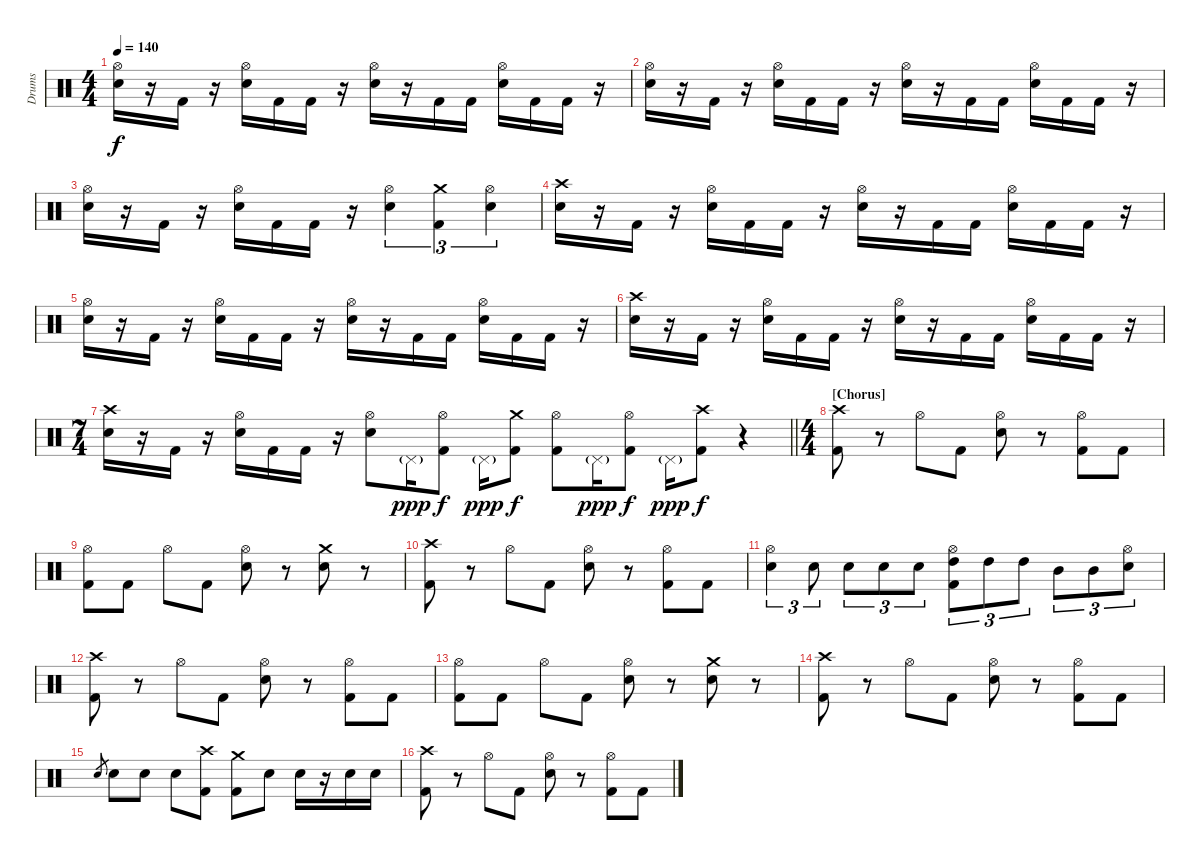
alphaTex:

\track ("Drums" "Drums") {instrument percussion}
\staff {score}
\articulation defaults
\ts (4 4)
\tempo 140
\clef neutral
\ks c
("Hi-Hat (open)" "Snare (hit) 2").16{dy f} r.16 "Kick (hit) 2".16 r.16 ("Hi-Hat (open)" "Snare (hit) 2").16 "Kick (hit) 2".16 "Kick (hit) 2".16 r.16 ("Hi-Hat (open)" "Snare (hit) 2").16 r.16 "Kick (hit) 2".16 "Kick (hit) 2".16 ("Hi-Hat (open)" "Snare (hit) 2").16 "Kick (hit) 2".16 "Kick (hit) 2".16 r.16 |
("Hi-Hat (open)" "Snare (hit) 2").16 r.16 "Kick (hit) 2".16 r.16 ("Hi-Hat (open)" "Snare (hit) 2").16 "Kick (hit) 2".16 "Kick (hit) 2".16 r.16 ("Hi-Hat (open)" "Snare (hit) 2").16 r.16 "Kick (hit) 2".16 "Kick (hit) 2".16 ("Hi-Hat (open)" "Snare (hit) 2").16 "Kick (hit) 2".16 "Kick (hit) 2".16 r.16 |
("Hi-Hat (open)" "Snare (hit) 2").16 r.16 "Kick (hit) 2".16 r.16 ("Hi-Hat (open)" "Snare (hit) 2").16 "Kick (hit) 2".16 "Kick (hit) 2".16 r.16 ("Hi-Hat (open)" "Snare (hit) 2").4{tu (3 2)} ("Crash medium (hit)" "Kick (hit) 2").4{tu (3 2)} ("Hi-Hat (open)" "Snare (hit) 2").4{tu (3 2)} |
("Crash high (hit)" "Snare (hit) 2").16 r.16 "Kick (hit) 2".16 r.16 ("Hi-Hat (open)" "Snare (hit) 2").16 "Kick (hit) 2".16 "Kick (hit) 2".16 r.16 ("Hi-Hat (open)" "Snare (hit) 2").16 r.16 "Kick (hit) 2".16 "Kick (hit) 2".16 ("Hi-Hat (open)" "Snare (hit) 2").16 "Kick (hit) 2".16 "Kick (hit) 2".16 r.16 |
("Hi-Hat (open)" "Snare (hit) 2").16 r.16 "Kick (hit) 2".16 r.16 ("Hi-Hat (open)" "Snare (hit) 2").16 "Kick (hit) 2".16 "Kick (hit) 2".16 r.16 ("Hi-Hat (open)" "Snare (hit) 2").16 r.16 "Kick (hit) 2".16 "Kick (hit) 2".16 ("Hi-Hat (open)" "Snare (hit) 2").16 "Kick (hit) 2".16 "Kick (hit) 2".16 r.16 |
("Crash high (hit)" "Snare (hit) 2").16 r.16 "Kick (hit) 2".16 r.16 ("Hi-Hat (open)" "Snare (hit) 2").16 "Kick (hit) 2".16 "Kick (hit) 2".16 r.16 ("Hi-Hat (open)" "Snare (hit) 2").16 r.16 "Kick (hit) 2".16 "Kick (hit) 2".16 ("Hi-Hat (open)" "Snare (hit) 2").16 "Kick (hit) 2".16 "Kick (hit) 2".16 r.16 |
\ts (7 4)
\barLineRight lightlight
("Crash high (hit)" "Snare (hit) 2").16 r.16 "Kick (hit) 2".16 r.16 ("Hi-Hat (open)" "Snare (hit) 2").16 "Kick (hit) 2".16 "Kick (hit) 2".16 r.16 ("Hi-Hat (open)" "Snare (hit) 2").8 "Pedal Hi-Hat (hit)"{g}.16{dy ppp} ("Hi-Hat (open)" "Kick (hit) 2").8{dy f} "Pedal Hi-Hat (hit)"{g}.16{dy ppp} ("Crash medium (hit)" "Kick (hit) 2").8{dy f} ("Hi-Hat (open)" "Kick (hit) 2").8 "Pedal Hi-Hat (hit)"{g}.16{dy ppp} ("Hi-Hat (open)" "Kick (hit) 2").8{dy f} "Pedal Hi-Hat (hit)"{g}.16{dy ppp} ("Crash high (hit)" "Kick (hit) 2").8{dy f} r.4 |
\ts (4 4)
\section ("" "[Chorus]")
("Crash high (hit)" "Kick (hit) 2").8 r.8 "Hi-Hat (open)".8 "Kick (hit) 2".8 ("Hi-Hat (open)" "Snare (hit) 2").8 r.8 ("Hi-Hat (open)" "Kick (hit) 2").8 "Kick (hit) 2".8 |
("Hi-Hat (open)" "Kick (hit) 2").8 "Kick (hit) 2".8 "Hi-Hat (open)".8 "Kick (hit) 2".8 ("Hi-Hat (open)" "Snare (hit) 2").8 r.8 ("Crash medium (hit)" "Snare (hit) 2").8 r.8 |
("Crash high (hit)" "Kick (hit) 2").8 r.8 "Hi-Hat (open)".8 "Kick (hit) 2".8 ("Hi-Hat (open)" "Snare (hit) 2").8 r.8 ("Hi-Hat (open)" "Kick (hit) 2").8 "Kick (hit) 2".8 |
("Hi-Hat (open)" "Snare (hit) 2").4{tu (3 2)} "Snare (hit) 2".8{tu (3 2)} "Snare (hit) 2".8{tu (3 2)} "Snare (hit) 2".8{tu (3 2)} "Snare (hit) 2".8{tu (3 2)} ("Hi-Hat (open)" "High Tom (hit)" "Kick (hit) 2").8{tu (3 2)} "High Tom (hit)".8{tu (3 2)} "High Tom (hit)".8{tu (3 2)} "Mid Tom (hit)".8{tu (3 2)} "Mid Tom (hit)".8{tu (3 2)} ("Hi-Hat (open)" "Snare (hit) 2").8{tu (3 2)} |
("Crash high (hit)" "Kick (hit) 2").8 r.8 "Hi-Hat (open)".8 "Kick (hit) 2".8 ("Hi-Hat (open)" "Snare (hit) 2").8 r.8 ("Hi-Hat (open)" "Kick (hit) 2").8 "Kick (hit) 2".8 |
("Hi-Hat (open)" "Kick (hit) 2").8 "Kick (hit) 2".8 "Hi-Hat (open)".8 "Kick (hit) 2".8 ("Hi-Hat (open)" "Snare (hit) 2").8 r.8 ("Crash medium (hit)" "Snare (hit) 2").8 r.8 |
("Crash high (hit)" "Kick (hit) 2").8 r.8 "Hi-Hat (open)".8 "Kick (hit) 2".8 ("Hi-Hat (open)" "Snare (hit) 2").8 r.8 ("Hi-Hat (open)" "Kick (hit) 2").8 "Kick (hit) 2".8 |
"Snare (hit) 2".8{gr} "Snare (hit) 2".8 "Snare (hit) 2".8 "Snare (hit) 2".8 ("Crash high (hit)" "Kick (hit) 2").8 ("Crash medium (hit)" "Kick (hit) 2").8 "Snare (hit) 2".8 "Snare (hit) 2".16 r.16 "Snare (hit) 2".16 "Snare (hit) 2".16 |
("Crash high (hit)" "Kick (hit) 2").8 r.8 "Hi-Hat (open)".8 "Kick (hit) 2".8 ("Hi-Hat (open)" "Snare (hit) 2").8 r.8 ("Hi-Hat (open)" "Kick (hit) 2").8 "Kick (hit) 2".8
